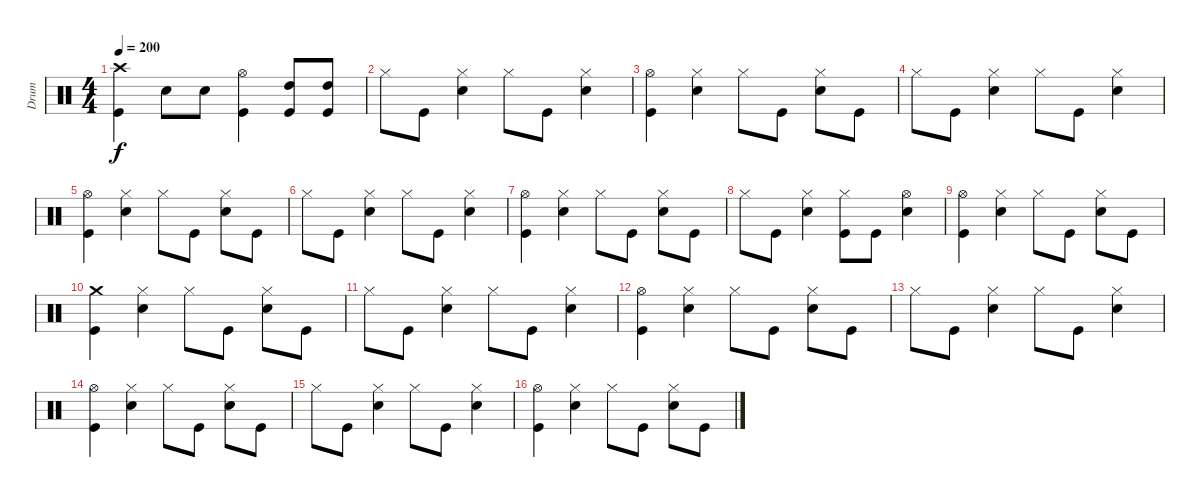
\track ("Drum" "Drum") {instrument percussion}
\staff {score}
\articulation defaults
\ts (4 4)
\tempo 200
\clef neutral
\ks c
("Kick (hit)" "Crash high (hit)").4{dy f} "Snare (hit) 2".8 "Snare (hit) 2".8 ("Kick (hit)" "Hi-Hat (open)").4 ("High Tom (hit)" "Kick (hit)").8 ("High Tom (hit)" "Kick (hit)").8 |
"Hi-Hat (closed)".8 "Kick (hit)".8 ("Hi-Hat (closed)" "Snare (hit) 2").4 "Hi-Hat (closed)".8 "Kick (hit)".8 ("Hi-Hat (closed)" "Snare (hit) 2").4 |
("Hi-Hat (open)" "Kick (hit)").4 ("Hi-Hat (closed)" "Snare (hit) 2").4 "Hi-Hat (closed)".8 "Kick (hit)".8 ("Hi-Hat (closed)" "Snare (hit) 2").8 "Kick (hit)".8 |
"Hi-Hat (closed)".8 "Kick (hit)".8 ("Hi-Hat (closed)" "Snare (hit) 2").4 "Hi-Hat (closed)".8 "Kick (hit)".8 ("Hi-Hat (closed)" "Snare (hit) 2").4 |
("Hi-Hat (open)" "Kick (hit)").4 ("Hi-Hat (closed)" "Snare (hit) 2").4 "Hi-Hat (closed)".8 "Kick (hit)".8 ("Hi-Hat (closed)" "Snare (hit) 2").8 "Kick (hit)".8 |
"Hi-Hat (closed)".8 "Kick (hit)".8 ("Hi-Hat (closed)" "Snare (hit) 2").4 "Hi-Hat (closed)".8 "Kick (hit)".8 ("Hi-Hat (closed)" "Snare (hit) 2").4 |
("Hi-Hat (open)" "Kick (hit)").4 ("Hi-Hat (closed)" "Snare (hit) 2").4 "Hi-Hat (closed)".8 "Kick (hit)".8 ("Hi-Hat (closed)" "Snare (hit) 2").8 "Kick (hit)".8 |
"Hi-Hat (closed)".8 "Kick (hit)".8 ("Hi-Hat (closed)" "Snare (hit) 2").4 ("Hi-Hat (closed)" "Kick (hit)").8 "Kick (hit)".8 ("Hi-Hat (open)" "Snare (hit) 2").4 |
("Hi-Hat (open)" "Kick (hit)").4 ("Hi-Hat (closed)" "Snare (hit) 2").4 "Hi-Hat (closed)".8 "Kick (hit)".8 ("Hi-Hat (closed)" "Snare (hit) 2").8 "Kick (hit)".8 |
("Crash medium (hit)" "Kick (hit)").4 ("Hi-Hat (closed)" "Snare (hit) 2").4 "Hi-Hat (closed)".8 "Kick (hit)".8 ("Hi-Hat (closed)" "Snare (hit) 2").8 "Kick (hit)".8 |
"Hi-Hat (closed)".8 "Kick (hit)".8 ("Hi-Hat (closed)" "Snare (hit) 2").4 "Hi-Hat (closed)".8 "Kick (hit)".8 ("Hi-Hat (closed)" "Snare (hit) 2").4 |
("Hi-Hat (open)" "Kick (hit)").4 ("Hi-Hat (closed)" "Snare (hit) 2").4 "Hi-Hat (closed)".8 "Kick (hit)".8 ("Hi-Hat (closed)" "Snare (hit) 2").8 "Kick (hit)".8 |
"Hi-Hat (closed)".8 "Kick (hit)".8 ("Hi-Hat (closed)" "Snare (hit) 2").4 "Hi-Hat (closed)".8 "Kick (hit)".8 ("Hi-Hat (closed)" "Snare (hit) 2").4 |
("Hi-Hat (open)" "Kick (hit)").4 ("Hi-Hat (closed)" "Snare (hit) 2").4 "Hi-Hat (closed)".8 "Kick (hit)".8 ("Hi-Hat (closed)" "Snare (hit) 2").8 "Kick (hit)".8 |
"Hi-Hat (closed)".8 "Kick (hit)".8 ("Hi-Hat (closed)" "Snare (hit) 2").4 "Hi-Hat (closed)".8 "Kick (hit)".8 ("Hi-Hat (closed)" "Snare (hit) 2").4 |
("Hi-Hat (open)" "Kick (hit)").4 ("Hi-Hat (closed)" "Snare (hit) 2").4 "Hi-Hat (closed)".8 "Kick (hit)".8 ("Hi-Hat (closed)" "Snare (hit) 2").8 "Kick (hit)".8
